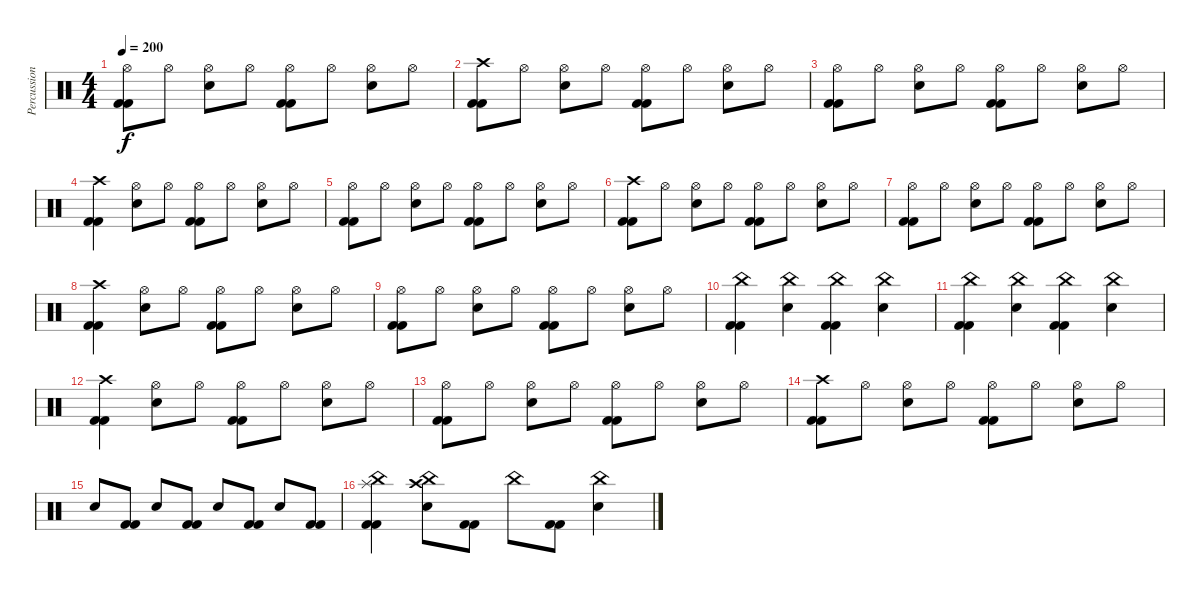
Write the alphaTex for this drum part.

\track ("Percussion" "Percussion") {instrument percussion}
\staff {score}
\articulation defaults
\ts (4 4)
\tempo 200
\clef neutral
\ks c
("Hi-Hat (open)" "Kick (hit) 2" "Kick (hit) 2").8{dy f} "Hi-Hat (open)".8 ("Hi-Hat (open)" "Snare (hit) 2").8 "Hi-Hat (open)".8 ("Hi-Hat (open)" "Kick (hit) 2" "Kick (hit) 2").8 "Hi-Hat (open)".8 ("Hi-Hat (open)" "Snare (hit) 2").8 "Hi-Hat (open)".8 |
("Crash high (hit)" "Kick (hit) 2" "Kick (hit) 2").8 "Hi-Hat (open)".8 ("Hi-Hat (open)" "Snare (hit) 2").8 "Hi-Hat (open)".8 ("Hi-Hat (open)" "Kick (hit) 2" "Kick (hit) 2").8 "Hi-Hat (open)".8 ("Hi-Hat (open)" "Snare (hit) 2").8 "Hi-Hat (open)".8 |
("Hi-Hat (open)" "Kick (hit) 2" "Kick (hit) 2").8 "Hi-Hat (open)".8 ("Hi-Hat (open)" "Snare (hit) 2").8 "Hi-Hat (open)".8 ("Hi-Hat (open)" "Kick (hit) 2" "Kick (hit) 2").8 "Hi-Hat (open)".8 ("Hi-Hat (open)" "Snare (hit) 2").8 "Hi-Hat (open)".8 |
("Crash high (hit)" "Kick (hit) 2" "Kick (hit) 2").4 ("Hi-Hat (open)" "Snare (hit) 2").8 "Hi-Hat (open)".8 ("Hi-Hat (open)" "Kick (hit) 2" "Kick (hit) 2").8 "Hi-Hat (open)".8 ("Hi-Hat (open)" "Snare (hit) 2").8 "Hi-Hat (open)".8 |
("Hi-Hat (open)" "Kick (hit) 2" "Kick (hit) 2").8 "Hi-Hat (open)".8 ("Hi-Hat (open)" "Snare (hit) 2").8 "Hi-Hat (open)".8 ("Hi-Hat (open)" "Kick (hit) 2" "Kick (hit) 2").8 "Hi-Hat (open)".8 ("Hi-Hat (open)" "Snare (hit) 2").8 "Hi-Hat (open)".8 |
("Crash high (hit)" "Kick (hit) 2" "Kick (hit) 2").8 "Hi-Hat (open)".8 ("Hi-Hat (open)" "Snare (hit) 2").8 "Hi-Hat (open)".8 ("Hi-Hat (open)" "Kick (hit) 2" "Kick (hit) 2").8 "Hi-Hat (open)".8 ("Hi-Hat (open)" "Snare (hit) 2").8 "Hi-Hat (open)".8 |
("Hi-Hat (open)" "Kick (hit) 2" "Kick (hit) 2").8 "Hi-Hat (open)".8 ("Hi-Hat (open)" "Snare (hit) 2").8 "Hi-Hat (open)".8 ("Hi-Hat (open)" "Kick (hit) 2" "Kick (hit) 2").8 "Hi-Hat (open)".8 ("Hi-Hat (open)" "Snare (hit) 2").8 "Hi-Hat (open)".8 |
("Crash high (hit)" "Kick (hit) 2" "Kick (hit) 2").4 ("Hi-Hat (open)" "Snare (hit) 2").8 "Hi-Hat (open)".8 ("Hi-Hat (open)" "Kick (hit) 2" "Kick (hit) 2").8 "Hi-Hat (open)".8 ("Hi-Hat (open)" "Snare (hit) 2").8 "Hi-Hat (open)".8 |
("Hi-Hat (open)" "Kick (hit) 2" "Kick (hit) 2").8 "Hi-Hat (open)".8 ("Hi-Hat (open)" "Snare (hit) 2").8 "Hi-Hat (open)".8 ("Hi-Hat (open)" "Kick (hit) 2" "Kick (hit) 2").8 "Hi-Hat (open)".8 ("Hi-Hat (open)" "Snare (hit) 2").8 "Hi-Hat (open)".8 |
("China (hit)" "Kick (hit) 2" "Kick (hit) 2").4 ("China (hit)" "Snare (hit) 2").4 ("China (hit)" "Kick (hit) 2" "Kick (hit) 2").4 ("China (hit)" "Snare (hit) 2").4 |
("China (hit)" "Kick (hit) 2" "Kick (hit) 2").4 ("China (hit)" "Snare (hit) 2").4 ("China (hit)" "Kick (hit) 2" "Kick (hit) 2").4 ("China (hit)" "Snare (hit) 2").4 |
("Crash high (hit)" "Kick (hit) 2" "Kick (hit) 2").4 ("Hi-Hat (open)" "Snare (hit) 2").8 "Hi-Hat (open)".8 ("Hi-Hat (open)" "Kick (hit) 2" "Kick (hit) 2").8 "Hi-Hat (open)".8 ("Hi-Hat (open)" "Snare (hit) 2").8 "Hi-Hat (open)".8 |
("Hi-Hat (open)" "Kick (hit) 2" "Kick (hit) 2").8 "Hi-Hat (open)".8 ("Hi-Hat (open)" "Snare (hit) 2").8 "Hi-Hat (open)".8 ("Hi-Hat (open)" "Kick (hit) 2" "Kick (hit) 2").8 "Hi-Hat (open)".8 ("Hi-Hat (open)" "Snare (hit) 2").8 "Hi-Hat (open)".8 |
("Crash high (hit)" "Kick (hit) 2" "Kick (hit) 2").8 "Hi-Hat (open)".8 ("Hi-Hat (open)" "Snare (hit) 2").8 "Hi-Hat (open)".8 ("Hi-Hat (open)" "Kick (hit) 2" "Kick (hit) 2").8 "Hi-Hat (open)".8 ("Hi-Hat (open)" "Snare (hit) 2").8 "Hi-Hat (open)".8 |
"Snare (hit) 2".8 ("Kick (hit) 2" "Kick (hit) 2").8 "Snare (hit) 2".8 ("Kick (hit) 2" "Kick (hit) 2").8 "Snare (hit) 2".8 ("Kick (hit) 2" "Kick (hit) 2").8 "Snare (hit) 2".8 ("Kick (hit) 2" "Kick (hit) 2").8 |
("China (hit)" "Kick (hit) 2" "Kick (hit) 2" "Splash (hit)").4 ("China (hit)" "Snare (hit) 2" "Crash high (hit)").8 ("Kick (hit) 2" "Kick (hit) 2").8 "China (hit)".8 ("Kick (hit) 2" "Kick (hit) 2").8 ("China (hit)" "Snare (hit) 2").4
